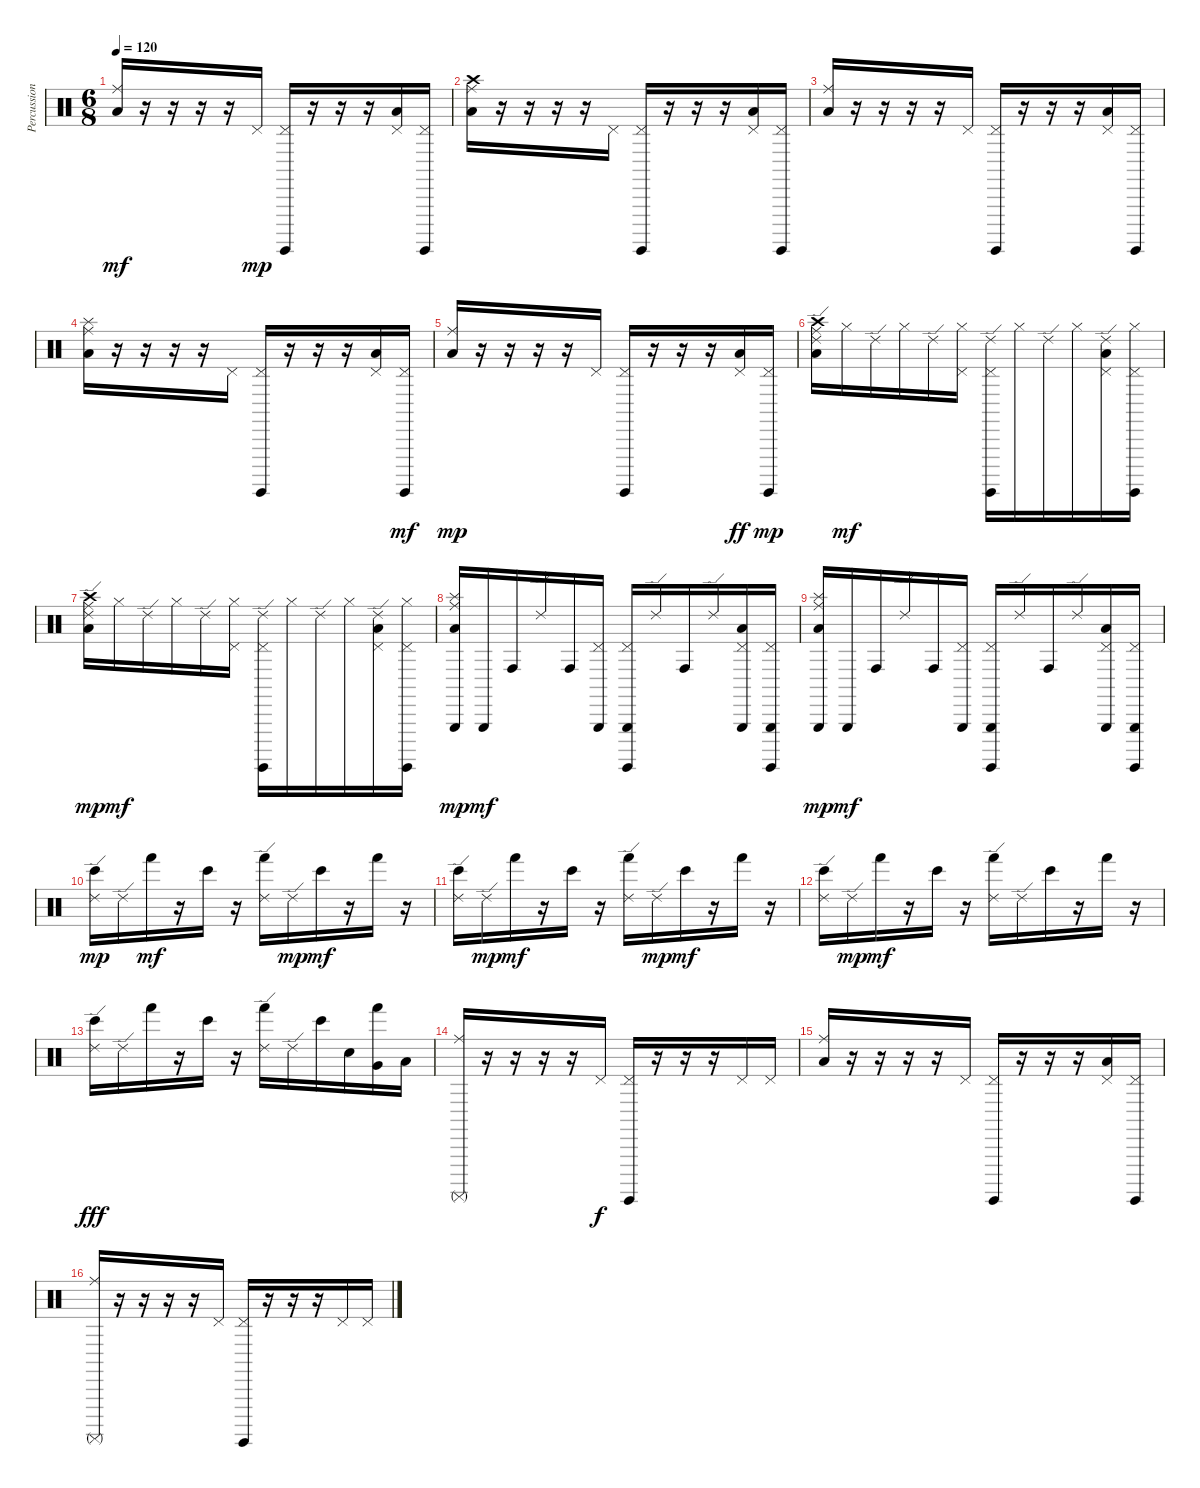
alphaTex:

\track ("Percussions" "Percussion") {instrument percussion}
\staff {score}
\articulation defaults
\ts (6 8)
\tempo 120
\clef neutral
\ks c
("Low Tom (hit)" "Ride (middle)").16{dy mf} r.16 r.16 r.16 r.16 "Pedal Hi-Hat (hit)".16{dy mp} ("Surdo (hit)" "Pedal Hi-Hat (hit)").16 r.16 r.16 r.16 ("Low Tom (hit)" "Pedal Hi-Hat (hit)").16 ("Surdo (hit)" "Pedal Hi-Hat (hit)").16 |
("Low Tom (hit)" "Ride (middle)" "Crash high (hit)").16 r.16 r.16 r.16 r.16 "Pedal Hi-Hat (hit)".16 ("Surdo (hit)" "Pedal Hi-Hat (hit)").16 r.16 r.16 r.16 ("Low Tom (hit)" "Pedal Hi-Hat (hit)").16 ("Surdo (hit)" "Pedal Hi-Hat (hit)").16 |
("Low Tom (hit)" "Ride (middle)").16 r.16 r.16 r.16 r.16 "Pedal Hi-Hat (hit)".16 ("Surdo (hit)" "Pedal Hi-Hat (hit)").16 r.16 r.16 r.16 ("Low Tom (hit)" "Pedal Hi-Hat (hit)").16 ("Surdo (hit)" "Pedal Hi-Hat (hit)").16 |
("Low Tom (hit)" "Ride (middle)" "Splash (hit)").16 r.16 r.16 r.16 r.16 "Pedal Hi-Hat (hit)".16 ("Surdo (hit)" "Pedal Hi-Hat (hit)").16 r.16 r.16 r.16 ("Low Tom (hit)" "Pedal Hi-Hat (hit)").16 ("Surdo (hit)" "Pedal Hi-Hat (hit)").16{dy mf} |
("Low Tom (hit)" "Ride (middle)").16{dy mp} r.16 r.16 r.16 r.16 "Pedal Hi-Hat (hit)".16 ("Surdo (hit)" "Pedal Hi-Hat (hit)").16 r.16 r.16 r.16 ("Low Tom (hit)" "Pedal Hi-Hat (hit)").16{dy ff} ("Surdo (hit)" "Pedal Hi-Hat (hit)").16{dy mp} |
("Low Tom (hit)" "Ride (middle)" "Ride (edge) 2" "Crash high (hit)").16 "Hi-Hat (closed)".16{dy mf} "Ride (edge) 2".16 "Hi-Hat (closed)".16 "Ride (edge) 2".16 ("Pedal Hi-Hat (hit)" "Hi-Hat (closed)").16 ("Surdo (hit)" "Pedal Hi-Hat (hit)" "Ride (edge) 2").16 "Hi-Hat (closed)".16 "Ride (edge) 2".16 "Hi-Hat (closed)".16 ("Low Tom (hit)" "Pedal Hi-Hat (hit)" "Ride (edge) 2").16 ("Surdo (hit)" "Pedal Hi-Hat (hit)" "Hi-Hat (closed)").16 |
("Low Tom (hit)" "Ride (middle)" "Ride (edge) 2" "Crash high (hit)").16{dy mp} "Hi-Hat (closed)".16{dy mf} "Ride (edge) 2".16 "Hi-Hat (closed)".16 "Ride (edge) 2".16 ("Pedal Hi-Hat (hit)" "Hi-Hat (closed)").16 ("Surdo (hit)" "Pedal Hi-Hat (hit)" "Ride (edge) 2").16 "Hi-Hat (closed)".16 "Ride (edge) 2".16 "Hi-Hat (closed)".16 ("Low Tom (hit)" "Pedal Hi-Hat (hit)" "Ride (edge) 2").16 ("Surdo (hit)" "Pedal Hi-Hat (hit)" "Hi-Hat (closed)").16 |
("Low Tom (hit)" "Ride (middle)" "Triangle (hit)" "Splash (hit)").16{dy mp} "Triangle (hit)".16{dy mf} "Conga high (hit)".16 "Ride (edge) 2".16 "Conga high (hit)".16 ("Pedal Hi-Hat (hit)" "Triangle (hit)").16 ("Surdo (hit)" "Pedal Hi-Hat (hit)" "Triangle (hit)").16 "Ride (edge) 2".16 "Conga high (hit)".16 "Ride (edge) 2".16 ("Low Tom (hit)" "Pedal Hi-Hat (hit)" "Triangle (hit)").16 ("Surdo (hit)" "Pedal Hi-Hat (hit)" "Triangle (hit)").16 |
("Low Tom (hit)" "Ride (middle)" "Triangle (hit)" "Splash (hit)").16{dy mp} "Triangle (hit)".16{dy mf} "Conga high (hit)".16 "Ride (edge) 2".16 "Conga high (hit)".16 ("Pedal Hi-Hat (hit)" "Triangle (hit)").16 ("Surdo (hit)" "Pedal Hi-Hat (hit)" "Triangle (hit)").16 "Ride (edge) 2".16 "Conga high (hit)".16 "Ride (edge) 2".16 ("Low Tom (hit)" "Pedal Hi-Hat (hit)" "Triangle (hit)").16 ("Surdo (hit)" "Pedal Hi-Hat (hit)" "Triangle (hit)").16 |
("Ride (edge) 2" "Bongo High (hit)").16{dy mp} "Ride (edge) 2".16 "Hand (hit)".16{dy mf} r.16 "Bongo High (hit)".16 r.16 ("Ride (edge) 2" "Hand (hit)").16 "Ride (edge) 2".16{dy mp} "Bongo High (hit)".16{dy mf} r.16 "Hand (hit)".16 r.16 |
("Ride (edge) 2" "Bongo High (hit)").16 "Ride (edge) 2".16{dy mp} "Hand (hit)".16{dy mf} r.16 "Bongo High (hit)".16 r.16 ("Ride (edge) 2" "Hand (hit)").16 "Ride (edge) 2".16{dy mp} "Bongo High (hit)".16{dy mf} r.16 "Hand (hit)".16 r.16 |
("Ride (edge) 2" "Bongo High (hit)").16 "Ride (edge) 2".16{dy mp} "Hand (hit)".16{dy mf} r.16 "Bongo High (hit)".16 r.16 ("Ride (edge) 2" "Hand (hit)").16 "Ride (edge) 2".16 "Bongo High (hit)".16 r.16 "Hand (hit)".16 r.16 |
("Ride (edge) 2" "Bongo High (hit)").16{dy fff} "Ride (edge) 2".16 "Hand (hit)".16 r.16 "Bongo High (hit)".16 r.16 ("Ride (edge) 2" "Hand (hit)").16 "Ride (edge) 2".16 "Bongo High (hit)".16 "Electric Snare (hit)".16 ("Very Low Tom (hit)" "Hand (hit)").16 "Low Tom (hit)".16 |
("Surdo (mute)" "Ride (middle)").16 r.16 r.16 r.16 r.16 "Pedal Hi-Hat (hit)".16{dy f} ("Surdo (hit)" "Pedal Hi-Hat (hit)").16 r.16 r.16 r.16 "Pedal Hi-Hat (hit)".16 "Pedal Hi-Hat (hit)".16 |
("Low Tom (hit)" "Ride (middle)").16 r.16 r.16 r.16 r.16 "Pedal Hi-Hat (hit)".16 ("Surdo (hit)" "Pedal Hi-Hat (hit)").16 r.16 r.16 r.16 ("Low Tom (hit)" "Pedal Hi-Hat (hit)").16 ("Surdo (hit)" "Pedal Hi-Hat (hit)").16 |
("Surdo (mute)" "Ride (middle)").16 r.16 r.16 r.16 r.16 "Pedal Hi-Hat (hit)".16 ("Surdo (hit)" "Pedal Hi-Hat (hit)").16 r.16 r.16 r.16 "Pedal Hi-Hat (hit)".16 "Pedal Hi-Hat (hit)".16
